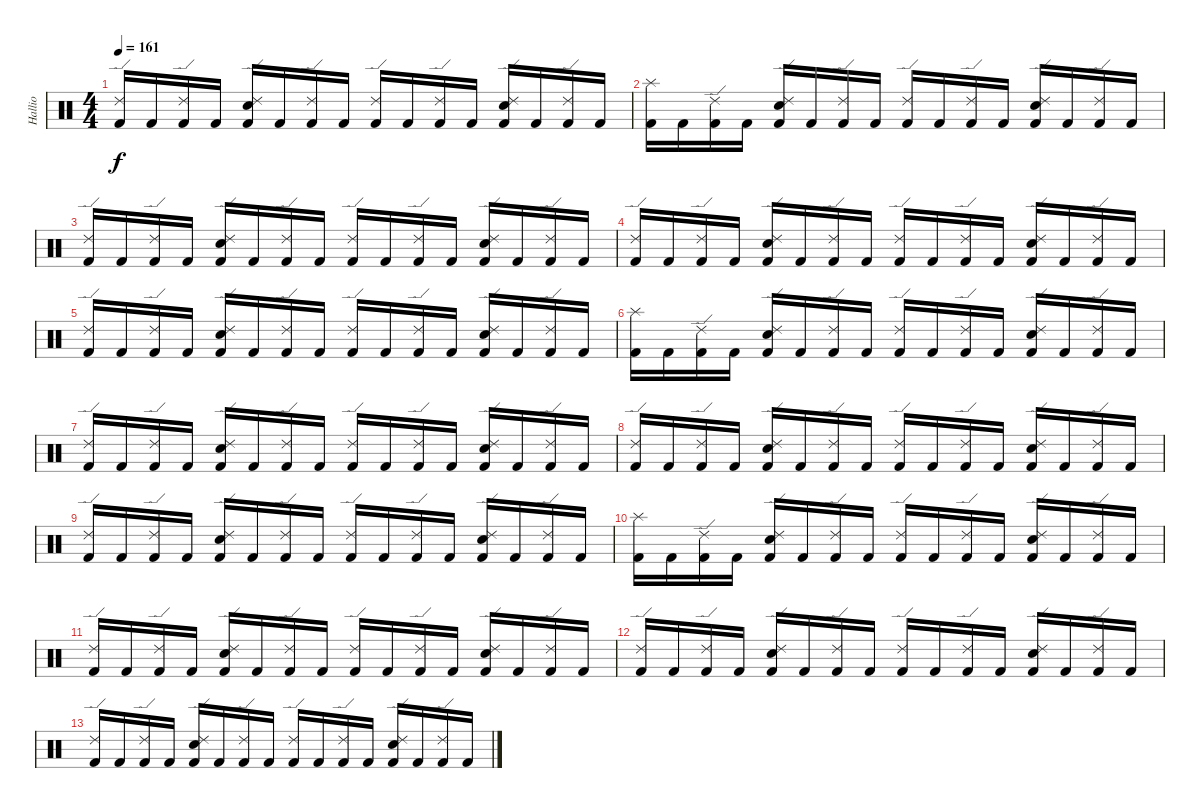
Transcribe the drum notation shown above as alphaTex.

\track ("Hallio" "Hallio") {instrument percussion}
\staff {score}
\articulation defaults
\ts (4 4)
\tempo 161
\clef neutral
\ks c
("Kick (hit) 2" "Ride (edge) 2").16{dy f} "Kick (hit) 2".16 ("Kick (hit) 2" "Ride (edge) 2").16 "Kick (hit) 2".16 ("Kick (hit) 2" "Snare (hit) 2" "Ride (edge) 2").16 "Kick (hit) 2".16 ("Kick (hit) 2" "Ride (edge) 2").16 "Kick (hit) 2".16 ("Kick (hit) 2" "Ride (edge) 2").16 "Kick (hit) 2".16 ("Kick (hit) 2" "Ride (edge) 2").16 "Kick (hit) 2".16 ("Kick (hit) 2" "Snare (hit) 2" "Ride (edge) 2").16 "Kick (hit) 2".16 ("Kick (hit) 2" "Ride (edge) 2").16 "Kick (hit) 2".16 |
("Kick (hit) 2" "Splash (hit)").16 "Kick (hit) 2".16 ("Kick (hit) 2" "Ride (edge) 2").16 "Kick (hit) 2".16 ("Kick (hit) 2" "Snare (hit) 2" "Ride (edge) 2").16 "Kick (hit) 2".16 ("Kick (hit) 2" "Ride (edge) 2").16 "Kick (hit) 2".16 ("Kick (hit) 2" "Ride (edge) 2").16 "Kick (hit) 2".16 ("Kick (hit) 2" "Ride (edge) 2").16 "Kick (hit) 2".16 ("Kick (hit) 2" "Snare (hit) 2" "Ride (edge) 2").16 "Kick (hit) 2".16 ("Kick (hit) 2" "Ride (edge) 2").16 "Kick (hit) 2".16 |
("Kick (hit) 2" "Ride (edge) 2").16 "Kick (hit) 2".16 ("Kick (hit) 2" "Ride (edge) 2").16 "Kick (hit) 2".16 ("Kick (hit) 2" "Snare (hit) 2" "Ride (edge) 2").16 "Kick (hit) 2".16 ("Kick (hit) 2" "Ride (edge) 2").16 "Kick (hit) 2".16 ("Kick (hit) 2" "Ride (edge) 2").16 "Kick (hit) 2".16 ("Kick (hit) 2" "Ride (edge) 2").16 "Kick (hit) 2".16 ("Kick (hit) 2" "Snare (hit) 2" "Ride (edge) 2").16 "Kick (hit) 2".16 ("Kick (hit) 2" "Ride (edge) 2").16 "Kick (hit) 2".16 |
("Kick (hit) 2" "Ride (edge) 2").16 "Kick (hit) 2".16 ("Kick (hit) 2" "Ride (edge) 2").16 "Kick (hit) 2".16 ("Kick (hit) 2" "Snare (hit) 2" "Ride (edge) 2").16 "Kick (hit) 2".16 ("Kick (hit) 2" "Ride (edge) 2").16 "Kick (hit) 2".16 ("Kick (hit) 2" "Ride (edge) 2").16 "Kick (hit) 2".16 ("Kick (hit) 2" "Ride (edge) 2").16 "Kick (hit) 2".16 ("Kick (hit) 2" "Snare (hit) 2" "Ride (edge) 2").16 "Kick (hit) 2".16 ("Kick (hit) 2" "Ride (edge) 2").16 "Kick (hit) 2".16 |
("Kick (hit) 2" "Ride (edge) 2").16 "Kick (hit) 2".16 ("Kick (hit) 2" "Ride (edge) 2").16 "Kick (hit) 2".16 ("Kick (hit) 2" "Snare (hit) 2" "Ride (edge) 2").16 "Kick (hit) 2".16 ("Kick (hit) 2" "Ride (edge) 2").16 "Kick (hit) 2".16 ("Kick (hit) 2" "Ride (edge) 2").16 "Kick (hit) 2".16 ("Kick (hit) 2" "Ride (edge) 2").16 "Kick (hit) 2".16 ("Kick (hit) 2" "Snare (hit) 2" "Ride (edge) 2").16 "Kick (hit) 2".16 ("Kick (hit) 2" "Ride (edge) 2").16 "Kick (hit) 2".16 |
("Kick (hit) 2" "Splash (hit)").16{volume 12} "Kick (hit) 2".16 ("Kick (hit) 2" "Ride (edge) 2").16 "Kick (hit) 2".16 ("Kick (hit) 2" "Snare (hit) 2" "Ride (edge) 2").16 "Kick (hit) 2".16 ("Kick (hit) 2" "Ride (edge) 2").16 "Kick (hit) 2".16 ("Kick (hit) 2" "Ride (edge) 2").16 "Kick (hit) 2".16 ("Kick (hit) 2" "Ride (edge) 2").16 "Kick (hit) 2".16 ("Kick (hit) 2" "Snare (hit) 2" "Ride (edge) 2").16 "Kick (hit) 2".16 ("Kick (hit) 2" "Ride (edge) 2").16 "Kick (hit) 2".16 |
("Kick (hit) 2" "Ride (edge) 2").16{volume 11} "Kick (hit) 2".16 ("Kick (hit) 2" "Ride (edge) 2").16 "Kick (hit) 2".16 ("Kick (hit) 2" "Snare (hit) 2" "Ride (edge) 2").16 "Kick (hit) 2".16 ("Kick (hit) 2" "Ride (edge) 2").16 "Kick (hit) 2".16 ("Kick (hit) 2" "Ride (edge) 2").16 "Kick (hit) 2".16 ("Kick (hit) 2" "Ride (edge) 2").16 "Kick (hit) 2".16 ("Kick (hit) 2" "Snare (hit) 2" "Ride (edge) 2").16 "Kick (hit) 2".16 ("Kick (hit) 2" "Ride (edge) 2").16 "Kick (hit) 2".16 |
("Kick (hit) 2" "Ride (edge) 2").16{volume 9} "Kick (hit) 2".16 ("Kick (hit) 2" "Ride (edge) 2").16 "Kick (hit) 2".16 ("Kick (hit) 2" "Snare (hit) 2" "Ride (edge) 2").16 "Kick (hit) 2".16 ("Kick (hit) 2" "Ride (edge) 2").16 "Kick (hit) 2".16 ("Kick (hit) 2" "Ride (edge) 2").16 "Kick (hit) 2".16 ("Kick (hit) 2" "Ride (edge) 2").16 "Kick (hit) 2".16 ("Kick (hit) 2" "Snare (hit) 2" "Ride (edge) 2").16 "Kick (hit) 2".16 ("Kick (hit) 2" "Ride (edge) 2").16 "Kick (hit) 2".16 |
("Kick (hit) 2" "Ride (edge) 2").16{volume 7} "Kick (hit) 2".16 ("Kick (hit) 2" "Ride (edge) 2").16 "Kick (hit) 2".16 ("Kick (hit) 2" "Snare (hit) 2" "Ride (edge) 2").16 "Kick (hit) 2".16 ("Kick (hit) 2" "Ride (edge) 2").16 "Kick (hit) 2".16 ("Kick (hit) 2" "Ride (edge) 2").16 "Kick (hit) 2".16 ("Kick (hit) 2" "Ride (edge) 2").16 "Kick (hit) 2".16 ("Kick (hit) 2" "Snare (hit) 2" "Ride (edge) 2").16 "Kick (hit) 2".16 ("Kick (hit) 2" "Ride (edge) 2").16 "Kick (hit) 2".16 |
("Kick (hit) 2" "Splash (hit)").16{volume 5} "Kick (hit) 2".16 ("Kick (hit) 2" "Ride (edge) 2").16 "Kick (hit) 2".16 ("Kick (hit) 2" "Snare (hit) 2" "Ride (edge) 2").16 "Kick (hit) 2".16 ("Kick (hit) 2" "Ride (edge) 2").16 "Kick (hit) 2".16 ("Kick (hit) 2" "Ride (edge) 2").16 "Kick (hit) 2".16 ("Kick (hit) 2" "Ride (edge) 2").16 "Kick (hit) 2".16 ("Kick (hit) 2" "Snare (hit) 2" "Ride (edge) 2").16 "Kick (hit) 2".16 ("Kick (hit) 2" "Ride (edge) 2").16 "Kick (hit) 2".16 |
("Kick (hit) 2" "Ride (edge) 2").16{volume 3} "Kick (hit) 2".16 ("Kick (hit) 2" "Ride (edge) 2").16 "Kick (hit) 2".16 ("Kick (hit) 2" "Snare (hit) 2" "Ride (edge) 2").16 "Kick (hit) 2".16 ("Kick (hit) 2" "Ride (edge) 2").16 "Kick (hit) 2".16 ("Kick (hit) 2" "Ride (edge) 2").16 "Kick (hit) 2".16 ("Kick (hit) 2" "Ride (edge) 2").16 "Kick (hit) 2".16 ("Kick (hit) 2" "Snare (hit) 2" "Ride (edge) 2").16 "Kick (hit) 2".16 ("Kick (hit) 2" "Ride (edge) 2").16 "Kick (hit) 2".16 |
("Kick (hit) 2" "Ride (edge) 2").16{volume 2} "Kick (hit) 2".16 ("Kick (hit) 2" "Ride (edge) 2").16 "Kick (hit) 2".16 ("Kick (hit) 2" "Snare (hit) 2" "Ride (edge) 2").16 "Kick (hit) 2".16 ("Kick (hit) 2" "Ride (edge) 2").16 "Kick (hit) 2".16 ("Kick (hit) 2" "Ride (edge) 2").16 "Kick (hit) 2".16 ("Kick (hit) 2" "Ride (edge) 2").16 "Kick (hit) 2".16 ("Kick (hit) 2" "Snare (hit) 2" "Ride (edge) 2").16 "Kick (hit) 2".16 ("Kick (hit) 2" "Ride (edge) 2").16 "Kick (hit) 2".16 |
("Kick (hit) 2" "Ride (edge) 2").16{volume 2} "Kick (hit) 2".16 ("Kick (hit) 2" "Ride (edge) 2").16 "Kick (hit) 2".16 ("Kick (hit) 2" "Snare (hit) 2" "Ride (edge) 2").16 "Kick (hit) 2".16 ("Kick (hit) 2" "Ride (edge) 2").16 "Kick (hit) 2".16 ("Kick (hit) 2" "Ride (edge) 2").16 "Kick (hit) 2".16 ("Kick (hit) 2" "Ride (edge) 2").16 "Kick (hit) 2".16 ("Kick (hit) 2" "Snare (hit) 2" "Ride (edge) 2").16 "Kick (hit) 2".16 ("Kick (hit) 2" "Ride (edge) 2").16 "Kick (hit) 2".16
